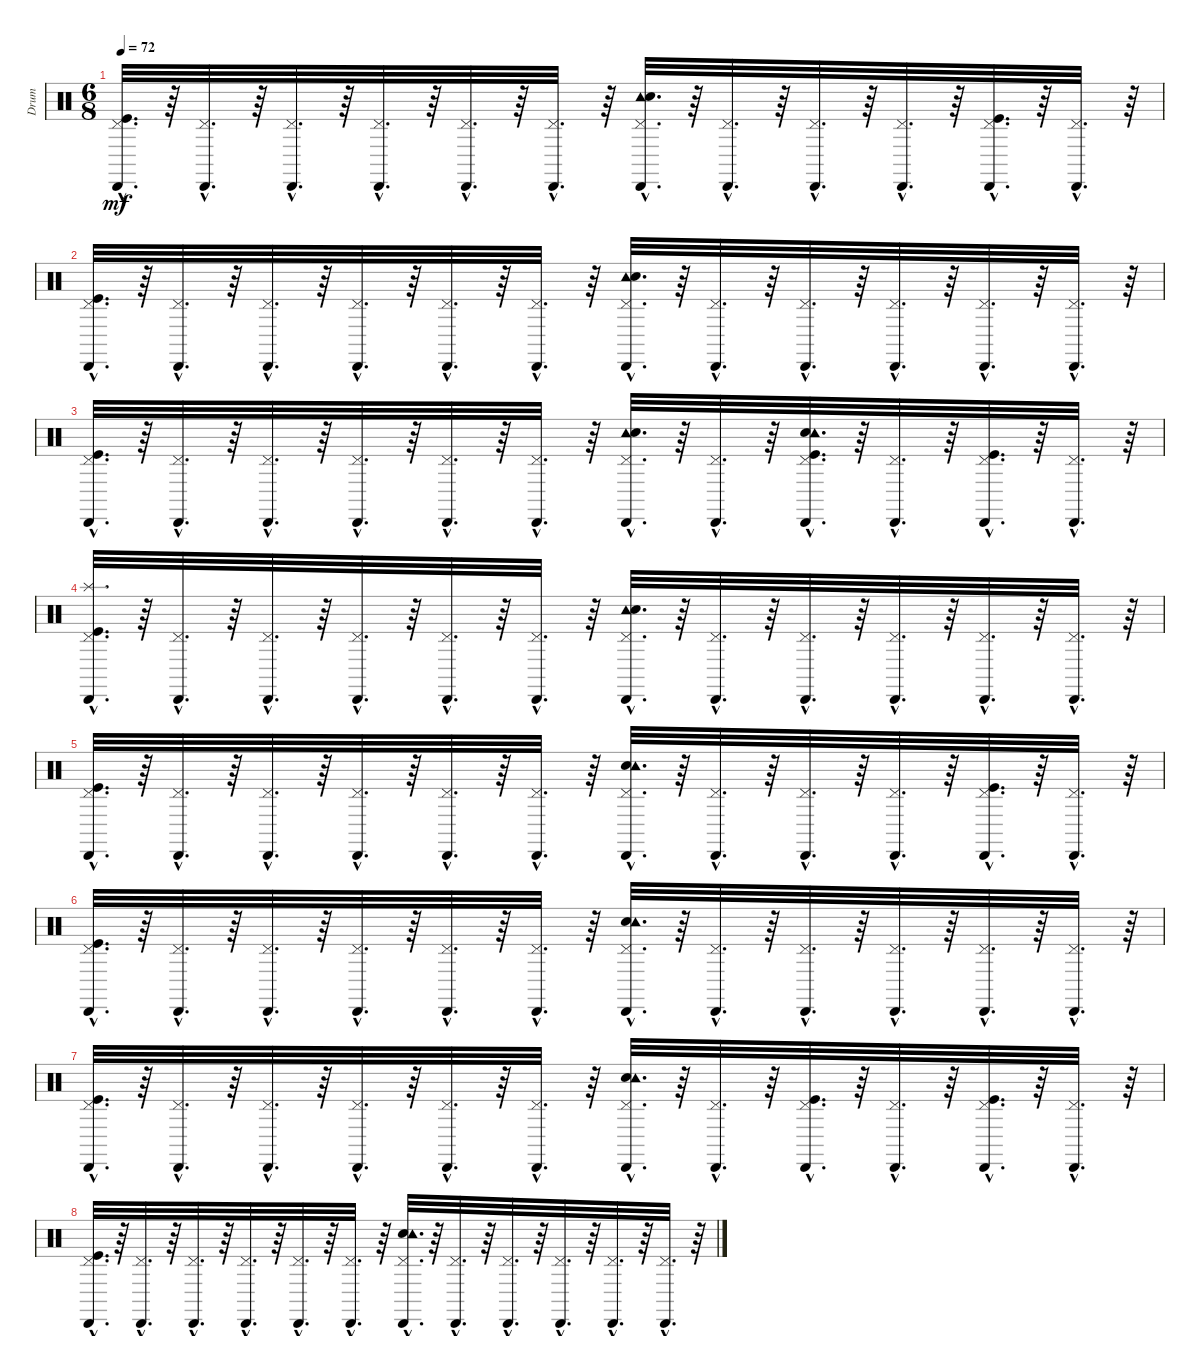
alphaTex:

\track ("Drum" "Drum") {instrument percussion}
\staff {score}
\articulation defaults
\ts (6 8)
\tempo 72
\clef neutral
\ks c
("Cabasa (hit)"{hac} "Pedal Hi-Hat (hit)"{hac} "Kick (hit)"{hac}).32{d dy mf} r.64 ("Cabasa (hit)"{hac} "Pedal Hi-Hat (hit)"{hac}).32{d} r.64 ("Cabasa (hit)"{hac} "Pedal Hi-Hat (hit)"{hac}).32{d} r.64 ("Cabasa (hit)"{hac} "Pedal Hi-Hat (hit)"{hac}).32{d} r.64 ("Cabasa (hit)"{hac} "Pedal Hi-Hat (hit)"{hac}).32{d} r.64 ("Cabasa (hit)"{hac} "Pedal Hi-Hat (hit)"{hac}).32{d} r.64 ("Cabasa (hit)"{hac} "Pedal Hi-Hat (hit)"{hac} "Tambourine (hit)"{hac} "Electric Snare (hit)"{hac}).32{d} r.64 ("Cabasa (hit)"{hac} "Pedal Hi-Hat (hit)"{hac}).32{d} r.64 ("Cabasa (hit)"{hac} "Pedal Hi-Hat (hit)"{hac}).32{d} r.64 ("Cabasa (hit)"{hac} "Pedal Hi-Hat (hit)"{hac}).32{d} r.64 ("Kick (hit)"{hac} "Cabasa (hit)"{hac} "Pedal Hi-Hat (hit)"{hac}).32{d} r.64 ("Cabasa (hit)"{hac} "Pedal Hi-Hat (hit)"{hac}).32{d} r.64 |
("Cabasa (hit)"{hac} "Pedal Hi-Hat (hit)"{hac} "Kick (hit)"{hac}).32{d} r.64 ("Cabasa (hit)"{hac} "Pedal Hi-Hat (hit)"{hac}).32{d} r.64 ("Cabasa (hit)"{hac} "Pedal Hi-Hat (hit)"{hac}).32{d} r.64 ("Cabasa (hit)"{hac} "Pedal Hi-Hat (hit)"{hac}).32{d} r.64 ("Cabasa (hit)"{hac} "Pedal Hi-Hat (hit)"{hac}).32{d} r.64 ("Cabasa (hit)"{hac} "Pedal Hi-Hat (hit)"{hac}).32{d} r.64 ("Cabasa (hit)"{hac} "Pedal Hi-Hat (hit)"{hac} "Tambourine (hit)"{hac} "Electric Snare (hit)"{hac}).32{d} r.64 ("Cabasa (hit)"{hac} "Pedal Hi-Hat (hit)"{hac}).32{d} r.64 ("Cabasa (hit)"{hac} "Pedal Hi-Hat (hit)"{hac}).32{d} r.64 ("Cabasa (hit)"{hac} "Pedal Hi-Hat (hit)"{hac}).32{d} r.64 ("Cabasa (hit)"{hac} "Pedal Hi-Hat (hit)"{hac}).32{d} r.64 ("Cabasa (hit)"{hac} "Pedal Hi-Hat (hit)"{hac}).32{d} r.64 |
("Cabasa (hit)"{hac} "Pedal Hi-Hat (hit)"{hac} "Kick (hit)"{hac}).32{d} r.64 ("Cabasa (hit)"{hac} "Pedal Hi-Hat (hit)"{hac}).32{d} r.64 ("Cabasa (hit)"{hac} "Pedal Hi-Hat (hit)"{hac}).32{d} r.64 ("Cabasa (hit)"{hac} "Pedal Hi-Hat (hit)"{hac}).32{d} r.64 ("Cabasa (hit)"{hac} "Pedal Hi-Hat (hit)"{hac}).32{d} r.64 ("Cabasa (hit)"{hac} "Pedal Hi-Hat (hit)"{hac}).32{d} r.64 ("Cabasa (hit)"{hac} "Pedal Hi-Hat (hit)"{hac} "Tambourine (hit)"{hac} "Electric Snare (hit)"{hac}).32{d} r.64 ("Cabasa (hit)"{hac} "Pedal Hi-Hat (hit)"{hac}).32{d} r.64 ("Kick (hit)"{hac} "Electric Snare (hit)"{hac} "Tambourine (hit)"{hac} "Cabasa (hit)"{hac} "Pedal Hi-Hat (hit)"{hac}).32{d} r.64 ("Cabasa (hit)"{hac} "Pedal Hi-Hat (hit)"{hac}).32{d} r.64 ("Kick (hit)"{hac} "Cabasa (hit)"{hac} "Pedal Hi-Hat (hit)"{hac}).32{d} r.64 ("Cabasa (hit)"{hac} "Pedal Hi-Hat (hit)"{hac}).32{d} r.64 |
("Splash (hit)"{hac} "Cabasa (hit)"{hac} "Pedal Hi-Hat (hit)"{hac} "Kick (hit)"{hac}).32{d} r.64 ("Cabasa (hit)"{hac} "Pedal Hi-Hat (hit)"{hac}).32{d} r.64 ("Cabasa (hit)"{hac} "Pedal Hi-Hat (hit)"{hac}).32{d} r.64 ("Cabasa (hit)"{hac} "Pedal Hi-Hat (hit)"{hac}).32{d} r.64 ("Cabasa (hit)"{hac} "Pedal Hi-Hat (hit)"{hac}).32{d} r.64 ("Cabasa (hit)"{hac} "Pedal Hi-Hat (hit)"{hac}).32{d} r.64 ("Cabasa (hit)"{hac} "Pedal Hi-Hat (hit)"{hac} "Tambourine (hit)"{hac} "Electric Snare (hit)"{hac}).32{d} r.64 ("Cabasa (hit)"{hac} "Pedal Hi-Hat (hit)"{hac}).32{d} r.64 ("Cabasa (hit)"{hac} "Pedal Hi-Hat (hit)"{hac}).32{d} r.64 ("Cabasa (hit)"{hac} "Pedal Hi-Hat (hit)"{hac}).32{d} r.64 ("Cabasa (hit)"{hac} "Pedal Hi-Hat (hit)"{hac}).32{d} r.64 ("Cabasa (hit)"{hac} "Pedal Hi-Hat (hit)"{hac}).32{d} r.64 |
("Kick (hit)"{hac} "Pedal Hi-Hat (hit)"{hac} "Cabasa (hit)"{hac}).32{d} r.64 ("Pedal Hi-Hat (hit)"{hac} "Cabasa (hit)"{hac}).32{d} r.64 ("Pedal Hi-Hat (hit)"{hac} "Cabasa (hit)"{hac}).32{d} r.64 ("Pedal Hi-Hat (hit)"{hac} "Cabasa (hit)"{hac}).32{d} r.64 ("Pedal Hi-Hat (hit)"{hac} "Cabasa (hit)"{hac}).32{d} r.64 ("Pedal Hi-Hat (hit)"{hac} "Cabasa (hit)"{hac}).32{d} r.64 ("Electric Snare (hit)"{hac} "Tambourine (hit)"{hac} "Pedal Hi-Hat (hit)"{hac} "Cabasa (hit)"{hac}).32{d} r.64 ("Pedal Hi-Hat (hit)"{hac} "Cabasa (hit)"{hac}).32{d} r.64 ("Pedal Hi-Hat (hit)"{hac} "Cabasa (hit)"{hac}).32{d} r.64 ("Pedal Hi-Hat (hit)"{hac} "Cabasa (hit)"{hac}).32{d} r.64 ("Kick (hit)"{hac} "Pedal Hi-Hat (hit)"{hac} "Cabasa (hit)"{hac}).32{d} r.64 ("Pedal Hi-Hat (hit)"{hac} "Cabasa (hit)"{hac}).32{d} r.64 |
("Kick (hit)"{hac} "Pedal Hi-Hat (hit)"{hac} "Cabasa (hit)"{hac}).32{d} r.64 ("Pedal Hi-Hat (hit)"{hac} "Cabasa (hit)"{hac}).32{d} r.64 ("Pedal Hi-Hat (hit)"{hac} "Cabasa (hit)"{hac}).32{d} r.64 ("Pedal Hi-Hat (hit)"{hac} "Cabasa (hit)"{hac}).32{d} r.64 ("Pedal Hi-Hat (hit)"{hac} "Cabasa (hit)"{hac}).32{d} r.64 ("Pedal Hi-Hat (hit)"{hac} "Cabasa (hit)"{hac}).32{d} r.64 ("Electric Snare (hit)"{hac} "Tambourine (hit)"{hac} "Pedal Hi-Hat (hit)"{hac} "Cabasa (hit)"{hac}).32{d} r.64 ("Pedal Hi-Hat (hit)"{hac} "Cabasa (hit)"{hac}).32{d} r.64 ("Pedal Hi-Hat (hit)"{hac} "Cabasa (hit)"{hac}).32{d} r.64 ("Pedal Hi-Hat (hit)"{hac} "Cabasa (hit)"{hac}).32{d} r.64 ("Pedal Hi-Hat (hit)"{hac} "Cabasa (hit)"{hac}).32{d} r.64 ("Pedal Hi-Hat (hit)"{hac} "Cabasa (hit)"{hac}).32{d} r.64 |
("Kick (hit)"{hac} "Pedal Hi-Hat (hit)"{hac} "Cabasa (hit)"{hac}).32{d} r.64 ("Pedal Hi-Hat (hit)"{hac} "Cabasa (hit)"{hac}).32{d} r.64 ("Pedal Hi-Hat (hit)"{hac} "Cabasa (hit)"{hac}).32{d} r.64 ("Pedal Hi-Hat (hit)"{hac} "Cabasa (hit)"{hac}).32{d} r.64 ("Pedal Hi-Hat (hit)"{hac} "Cabasa (hit)"{hac}).32{d} r.64 ("Pedal Hi-Hat (hit)"{hac} "Cabasa (hit)"{hac}).32{d} r.64 ("Electric Snare (hit)"{hac} "Tambourine (hit)"{hac} "Pedal Hi-Hat (hit)"{hac} "Cabasa (hit)"{hac}).32{d} r.64 ("Pedal Hi-Hat (hit)"{hac} "Cabasa (hit)"{hac}).32{d} r.64 ("Kick (hit)"{hac} "Pedal Hi-Hat (hit)"{hac} "Cabasa (hit)"{hac}).32{d} r.64 ("Pedal Hi-Hat (hit)"{hac} "Cabasa (hit)"{hac}).32{d} r.64 ("Kick (hit)"{hac} "Pedal Hi-Hat (hit)"{hac} "Cabasa (hit)"{hac}).32{d} r.64 ("Pedal Hi-Hat (hit)"{hac} "Cabasa (hit)"{hac}).32{d} r.64 |
("Kick (hit)"{hac} "Pedal Hi-Hat (hit)"{hac} "Cabasa (hit)"{hac}).32{d} r.64 ("Pedal Hi-Hat (hit)"{hac} "Cabasa (hit)"{hac}).32{d} r.64 ("Pedal Hi-Hat (hit)"{hac} "Cabasa (hit)"{hac}).32{d} r.64 ("Pedal Hi-Hat (hit)"{hac} "Cabasa (hit)"{hac}).32{d} r.64 ("Pedal Hi-Hat (hit)"{hac} "Cabasa (hit)"{hac}).32{d} r.64 ("Pedal Hi-Hat (hit)"{hac} "Cabasa (hit)"{hac}).32{d} r.64 ("Electric Snare (hit)"{hac} "Tambourine (hit)"{hac} "Pedal Hi-Hat (hit)"{hac} "Cabasa (hit)"{hac}).32{d} r.64 ("Pedal Hi-Hat (hit)"{hac} "Cabasa (hit)"{hac}).32{d} r.64 ("Pedal Hi-Hat (hit)"{hac} "Cabasa (hit)"{hac}).32{d} r.64 ("Pedal Hi-Hat (hit)"{hac} "Cabasa (hit)"{hac}).32{d} r.64 ("Pedal Hi-Hat (hit)"{hac} "Cabasa (hit)"{hac}).32{d} r.64 ("Pedal Hi-Hat (hit)"{hac} "Cabasa (hit)"{hac}).32{d} r.64
